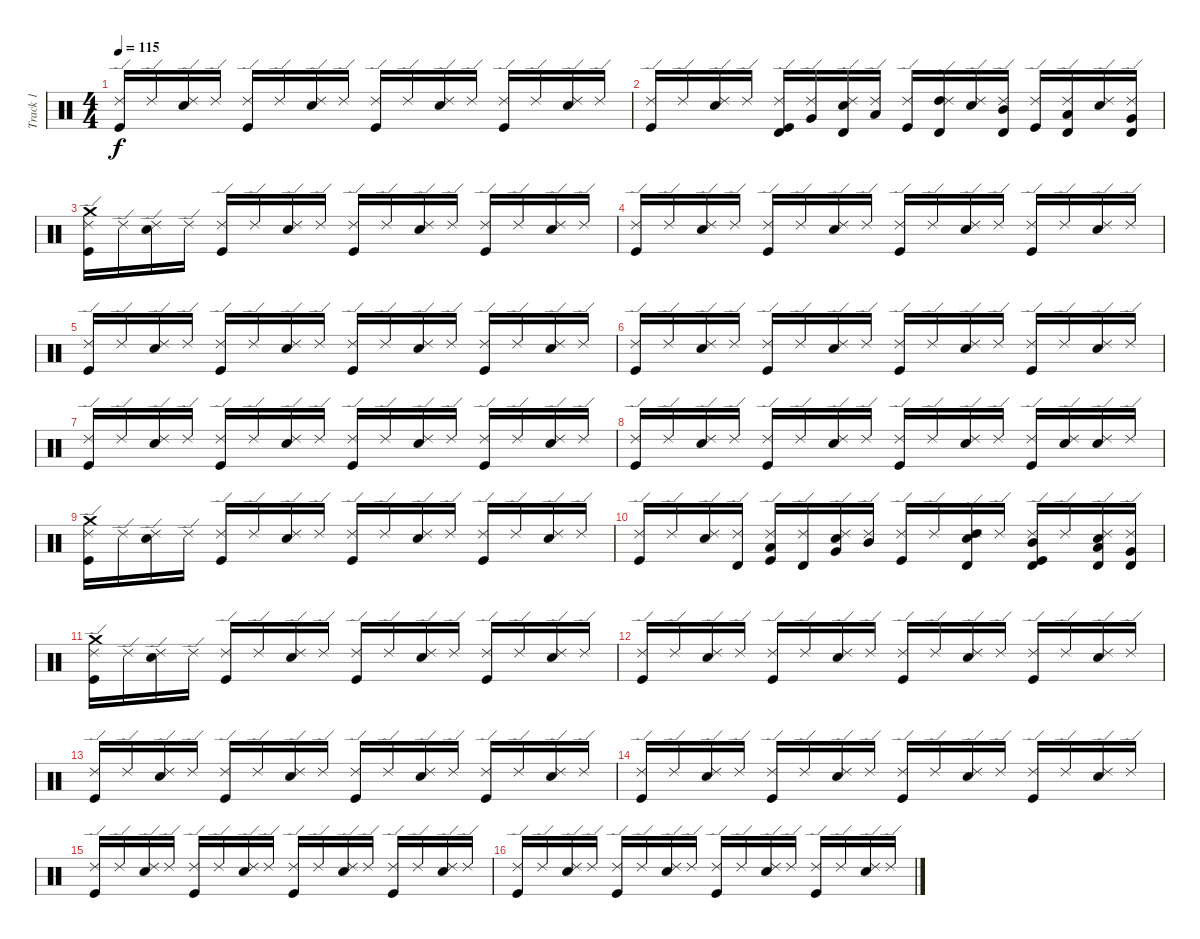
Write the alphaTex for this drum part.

\track ("Track 1" "Track 1") {instrument percussion}
\staff {score}
\articulation defaults
\ts (4 4)
\tempo 115
\clef neutral
\ks c
("Kick (hit)" "Ride (edge) 2").16{dy f} "Ride (edge) 2".16 ("Electric Snare (hit)" "Ride (edge) 2").16 "Ride (edge) 2".16 ("Kick (hit)" "Ride (edge) 2").16 "Ride (edge) 2".16 ("Electric Snare (hit)" "Ride (edge) 2").16 "Ride (edge) 2".16 ("Kick (hit)" "Ride (edge) 2").16 "Ride (edge) 2".16 ("Electric Snare (hit)" "Ride (edge) 2").16 "Ride (edge) 2".16 ("Kick (hit)" "Ride (edge) 2").16 "Ride (edge) 2".16 ("Electric Snare (hit)" "Ride (edge) 2").16 "Ride (edge) 2".16 |
("Kick (hit)" "Ride (edge) 2").16 "Ride (edge) 2".16 ("Electric Snare (hit)" "Ride (edge) 2").16 "Ride (edge) 2".16 ("Kick (hit)" "Ride (edge) 2" "Timbale high (hit)").16 ("Very Low Tom (hit)" "Ride (edge) 2").16 ("Electric Snare (hit)" "Ride (edge) 2" "Timbale high (hit)").16 ("Low Tom (hit)" "Ride (edge) 2").16 ("Kick (hit)" "Ride (edge) 2").16 ("High Tom (hit)" "Ride (edge) 2" "Timbale high (hit)").16 ("Electric Snare (hit)" "Ride (edge) 2").16 ("Mid Tom (hit)" "Ride (edge) 2" "Timbale high (hit)").16 ("Kick (hit)" "Ride (edge) 2").16 ("Low Tom (hit)" "Ride (edge) 2" "Timbale high (hit)").16 ("Electric Snare (hit)" "Ride (edge) 2").16 ("Very Low Tom (hit)" "Ride (edge) 2" "Timbale high (hit)").16 |
("Kick (hit)" "Crash medium (hit)" "Ride (edge) 2").16 "Ride (edge) 2".16 ("Electric Snare (hit)" "Ride (edge) 2").16 "Ride (edge) 2".16 ("Kick (hit)" "Ride (edge) 2").16 "Ride (edge) 2".16 ("Electric Snare (hit)" "Ride (edge) 2").16 "Ride (edge) 2".16 ("Kick (hit)" "Ride (edge) 2").16 "Ride (edge) 2".16 ("Electric Snare (hit)" "Ride (edge) 2").16 "Ride (edge) 2".16 ("Kick (hit)" "Ride (edge) 2").16 "Ride (edge) 2".16 ("Electric Snare (hit)" "Ride (edge) 2").16 "Ride (edge) 2".16 |
("Kick (hit)" "Ride (edge) 2").16 "Ride (edge) 2".16 ("Electric Snare (hit)" "Ride (edge) 2").16 "Ride (edge) 2".16 ("Kick (hit)" "Ride (edge) 2").16 "Ride (edge) 2".16 ("Electric Snare (hit)" "Ride (edge) 2").16 "Ride (edge) 2".16 ("Kick (hit)" "Ride (edge) 2").16 "Ride (edge) 2".16 ("Electric Snare (hit)" "Ride (edge) 2").16 "Ride (edge) 2".16 ("Kick (hit)" "Ride (edge) 2").16 "Ride (edge) 2".16 ("Electric Snare (hit)" "Ride (edge) 2").16 "Ride (edge) 2".16 |
("Kick (hit)" "Ride (edge) 2").16 "Ride (edge) 2".16 ("Electric Snare (hit)" "Ride (edge) 2").16 "Ride (edge) 2".16 ("Kick (hit)" "Ride (edge) 2").16 "Ride (edge) 2".16 ("Electric Snare (hit)" "Ride (edge) 2").16 "Ride (edge) 2".16 ("Kick (hit)" "Ride (edge) 2").16 "Ride (edge) 2".16 ("Electric Snare (hit)" "Ride (edge) 2").16 "Ride (edge) 2".16 ("Kick (hit)" "Ride (edge) 2").16 "Ride (edge) 2".16 ("Electric Snare (hit)" "Ride (edge) 2").16 "Ride (edge) 2".16 |
("Kick (hit)" "Ride (edge) 2").16 "Ride (edge) 2".16 ("Electric Snare (hit)" "Ride (edge) 2").16 "Ride (edge) 2".16 ("Kick (hit)" "Ride (edge) 2").16 "Ride (edge) 2".16 ("Electric Snare (hit)" "Ride (edge) 2").16 "Ride (edge) 2".16 ("Kick (hit)" "Ride (edge) 2").16 "Ride (edge) 2".16 ("Electric Snare (hit)" "Ride (edge) 2").16 "Ride (edge) 2".16 ("Kick (hit)" "Ride (edge) 2").16 "Ride (edge) 2".16 ("Electric Snare (hit)" "Ride (edge) 2").16 "Ride (edge) 2".16 |
("Kick (hit)" "Ride (edge) 2").16 "Ride (edge) 2".16 ("Electric Snare (hit)" "Ride (edge) 2").16 "Ride (edge) 2".16 ("Kick (hit)" "Ride (edge) 2").16 "Ride (edge) 2".16 ("Electric Snare (hit)" "Ride (edge) 2").16 "Ride (edge) 2".16 ("Kick (hit)" "Ride (edge) 2").16 "Ride (edge) 2".16 ("Electric Snare (hit)" "Ride (edge) 2").16 "Ride (edge) 2".16 ("Kick (hit)" "Ride (edge) 2").16 "Ride (edge) 2".16 ("Electric Snare (hit)" "Ride (edge) 2").16 "Ride (edge) 2".16 |
("Kick (hit)" "Ride (edge) 2").16 "Ride (edge) 2".16 ("Electric Snare (hit)" "Ride (edge) 2").16 "Ride (edge) 2".16 ("Kick (hit)" "Ride (edge) 2").16 "Ride (edge) 2".16 ("Electric Snare (hit)" "Ride (edge) 2").16 "Ride (edge) 2".16 ("Kick (hit)" "Ride (edge) 2").16 "Ride (edge) 2".16 ("Electric Snare (hit)" "Ride (edge) 2").16 "Ride (edge) 2".16 ("Kick (hit)" "Ride (edge) 2").16 ("Electric Snare (hit)" "Ride (edge) 2").16 ("Electric Snare (hit)" "Ride (edge) 2").16 "Ride (edge) 2".16 |
("Kick (hit)" "Crash medium (hit)" "Ride (edge) 2").16 "Ride (edge) 2".16 ("Electric Snare (hit)" "Ride (edge) 2").16 "Ride (edge) 2".16 ("Kick (hit)" "Ride (edge) 2").16 "Ride (edge) 2".16 ("Electric Snare (hit)" "Ride (edge) 2").16 "Ride (edge) 2".16 ("Kick (hit)" "Ride (edge) 2").16 "Ride (edge) 2".16 ("Electric Snare (hit)" "Ride (edge) 2").16 "Ride (edge) 2".16 ("Kick (hit)" "Ride (edge) 2").16 "Ride (edge) 2".16 ("Electric Snare (hit)" "Ride (edge) 2").16 "Ride (edge) 2".16 |
("Kick (hit)" "Ride (edge) 2").16 "Ride (edge) 2".16 ("Electric Snare (hit)" "Ride (edge) 2").16 ("Ride (edge) 2" "Timbale high (hit)").16 ("Kick (hit)" "Low Tom (hit)" "Ride (edge) 2").16 ("Ride (edge) 2" "Timbale high (hit)").16 ("Electric Snare (hit)" "Very Low Tom (hit)" "Ride (edge) 2").16 ("Mid Tom (hit)" "Ride (edge) 2").16 ("Kick (hit)" "Ride (edge) 2").16 "Ride (edge) 2".16 ("Electric Snare (hit)" "High Tom (hit)" "Ride (edge) 2" "Timbale high (hit)").16 "Ride (edge) 2".16 ("Kick (hit)" "Mid Tom (hit)" "Ride (edge) 2" "Timbale high (hit)").16 "Ride (edge) 2".16 ("Electric Snare (hit)" "Low Tom (hit)" "Ride (edge) 2" "Timbale high (hit)").16 ("Very Low Tom (hit)" "Ride (edge) 2" "Timbale high (hit)").16 |
("Kick (hit)" "Crash medium (hit)" "Ride (edge) 2").16 "Ride (edge) 2".16 ("Electric Snare (hit)" "Ride (edge) 2").16 "Ride (edge) 2".16 ("Kick (hit)" "Ride (edge) 2").16 "Ride (edge) 2".16 ("Electric Snare (hit)" "Ride (edge) 2").16 "Ride (edge) 2".16 ("Kick (hit)" "Ride (edge) 2").16 "Ride (edge) 2".16 ("Electric Snare (hit)" "Ride (edge) 2").16 "Ride (edge) 2".16 ("Kick (hit)" "Ride (edge) 2").16 "Ride (edge) 2".16 ("Electric Snare (hit)" "Ride (edge) 2").16 "Ride (edge) 2".16 |
("Kick (hit)" "Ride (edge) 2").16 "Ride (edge) 2".16 ("Electric Snare (hit)" "Ride (edge) 2").16 "Ride (edge) 2".16 ("Kick (hit)" "Ride (edge) 2").16 "Ride (edge) 2".16 ("Electric Snare (hit)" "Ride (edge) 2").16 "Ride (edge) 2".16 ("Kick (hit)" "Ride (edge) 2").16 "Ride (edge) 2".16 ("Electric Snare (hit)" "Ride (edge) 2").16 "Ride (edge) 2".16 ("Kick (hit)" "Ride (edge) 2").16 "Ride (edge) 2".16 ("Electric Snare (hit)" "Ride (edge) 2").16 "Ride (edge) 2".16 |
("Kick (hit)" "Ride (edge) 2").16 "Ride (edge) 2".16 ("Electric Snare (hit)" "Ride (edge) 2").16 "Ride (edge) 2".16 ("Kick (hit)" "Ride (edge) 2").16 "Ride (edge) 2".16 ("Electric Snare (hit)" "Ride (edge) 2").16 "Ride (edge) 2".16 ("Kick (hit)" "Ride (edge) 2").16 "Ride (edge) 2".16 ("Electric Snare (hit)" "Ride (edge) 2").16 "Ride (edge) 2".16 ("Kick (hit)" "Ride (edge) 2").16 "Ride (edge) 2".16 ("Electric Snare (hit)" "Ride (edge) 2").16 "Ride (edge) 2".16 |
("Kick (hit)" "Ride (edge) 2").16 "Ride (edge) 2".16 ("Electric Snare (hit)" "Ride (edge) 2").16 "Ride (edge) 2".16 ("Kick (hit)" "Ride (edge) 2").16 "Ride (edge) 2".16 ("Electric Snare (hit)" "Ride (edge) 2").16 "Ride (edge) 2".16 ("Kick (hit)" "Ride (edge) 2").16 "Ride (edge) 2".16 ("Electric Snare (hit)" "Ride (edge) 2").16 "Ride (edge) 2".16 ("Kick (hit)" "Ride (edge) 2").16 "Ride (edge) 2".16 ("Electric Snare (hit)" "Ride (edge) 2").16 "Ride (edge) 2".16 |
("Kick (hit)" "Ride (edge) 2").16 "Ride (edge) 2".16 ("Electric Snare (hit)" "Ride (edge) 2").16 "Ride (edge) 2".16 ("Kick (hit)" "Ride (edge) 2").16 "Ride (edge) 2".16 ("Electric Snare (hit)" "Ride (edge) 2").16 "Ride (edge) 2".16 ("Kick (hit)" "Ride (edge) 2").16 "Ride (edge) 2".16 ("Electric Snare (hit)" "Ride (edge) 2").16 "Ride (edge) 2".16 ("Kick (hit)" "Ride (edge) 2").16 "Ride (edge) 2".16 ("Electric Snare (hit)" "Ride (edge) 2").16 "Ride (edge) 2".16 |
("Kick (hit)" "Ride (edge) 2").16 "Ride (edge) 2".16 ("Electric Snare (hit)" "Ride (edge) 2").16 "Ride (edge) 2".16 ("Kick (hit)" "Ride (edge) 2").16 "Ride (edge) 2".16 ("Electric Snare (hit)" "Ride (edge) 2").16 "Ride (edge) 2".16 ("Kick (hit)" "Ride (edge) 2").16 "Ride (edge) 2".16 ("Electric Snare (hit)" "Ride (edge) 2").16 "Ride (edge) 2".16 ("Kick (hit)" "Ride (edge) 2").16 "Ride (edge) 2".16 ("Electric Snare (hit)" "Ride (edge) 2").16 "Ride (edge) 2".16
